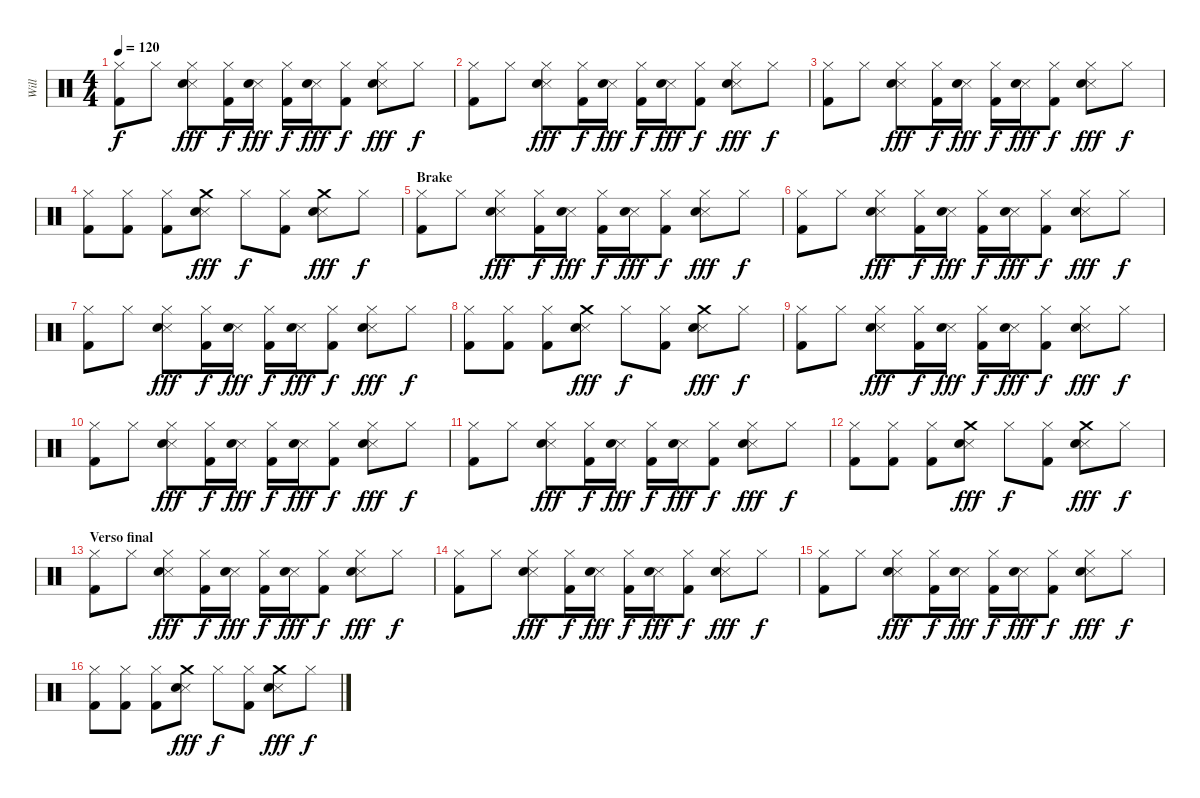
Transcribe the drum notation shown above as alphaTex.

\track ("Will " "Will ") {instrument percussion}
\staff {score}
\articulation defaults
\ts (4 4)
\tempo 120
\clef neutral
\ks c
("Hi-Hat (closed)" "Kick (hit) 2").8{dy f} "Hi-Hat (closed)".8 ("Hi-Hat (closed)" "Snare (side stick) 3" "Electric Snare (hit)").8{dy fff} ("Hi-Hat (closed)" "Kick (hit) 2").16{dy f} ("Snare (side stick) 3" "Electric Snare (hit)").16{dy fff} ("Hi-Hat (closed)" "Kick (hit) 2").16{dy f} ("Snare (side stick) 3" "Electric Snare (hit)").16{dy fff} ("Hi-Hat (closed)" "Kick (hit) 2").8{dy f} ("Hi-Hat (closed)" "Snare (side stick) 3" "Electric Snare (hit)").8{dy fff} "Hi-Hat (closed)".8{dy f} |
("Hi-Hat (closed)" "Kick (hit) 2").8 "Hi-Hat (closed)".8 ("Hi-Hat (closed)" "Snare (side stick) 3" "Electric Snare (hit)").8{dy fff} ("Hi-Hat (closed)" "Kick (hit) 2").16{dy f} ("Snare (side stick) 3" "Electric Snare (hit)").16{dy fff} ("Hi-Hat (closed)" "Kick (hit) 2").16{dy f} ("Snare (side stick) 3" "Electric Snare (hit)").16{dy fff} ("Hi-Hat (closed)" "Kick (hit) 2").8{dy f} ("Hi-Hat (closed)" "Snare (side stick) 3" "Electric Snare (hit)").8{dy fff} "Hi-Hat (closed)".8{dy f} |
("Hi-Hat (closed)" "Kick (hit) 2").8 "Hi-Hat (closed)".8 ("Hi-Hat (closed)" "Snare (side stick) 3" "Electric Snare (hit)").8{dy fff} ("Hi-Hat (closed)" "Kick (hit) 2").16{dy f} ("Snare (side stick) 3" "Electric Snare (hit)").16{dy fff} ("Hi-Hat (closed)" "Kick (hit) 2").16{dy f} ("Snare (side stick) 3" "Electric Snare (hit)").16{dy fff} ("Hi-Hat (closed)" "Kick (hit) 2").8{dy f} ("Hi-Hat (closed)" "Snare (side stick) 3" "Electric Snare (hit)").8{dy fff} "Hi-Hat (closed)".8{dy f} |
("Hi-Hat (closed)" "Kick (hit) 2").8 ("Hi-Hat (closed)" "Kick (hit) 2").8 ("Hi-Hat (closed)" "Kick (hit) 2").8 ("Crash medium (hit)" "Snare (side stick) 3" "Electric Snare (hit)").8{dy fff} "Hi-Hat (closed)".8{dy f} ("Hi-Hat (closed)" "Kick (hit) 2").8 ("Crash medium (hit)" "Snare (side stick) 3" "Electric Snare (hit)").8{dy fff} "Hi-Hat (closed)".8{dy f} |
\section ("" "Brake")
("Hi-Hat (closed)" "Kick (hit) 2").8 "Hi-Hat (closed)".8 ("Hi-Hat (closed)" "Snare (side stick) 3" "Electric Snare (hit)").8{dy fff} ("Hi-Hat (closed)" "Kick (hit) 2").16{dy f} ("Snare (side stick) 3" "Electric Snare (hit)").16{dy fff} ("Hi-Hat (closed)" "Kick (hit) 2").16{dy f} ("Snare (side stick) 3" "Electric Snare (hit)").16{dy fff} ("Hi-Hat (closed)" "Kick (hit) 2").8{dy f} ("Hi-Hat (closed)" "Snare (side stick) 3" "Electric Snare (hit)").8{dy fff} "Hi-Hat (closed)".8{dy f} |
("Hi-Hat (closed)" "Kick (hit) 2").8 "Hi-Hat (closed)".8 ("Hi-Hat (closed)" "Snare (side stick) 3" "Electric Snare (hit)").8{dy fff} ("Hi-Hat (closed)" "Kick (hit) 2").16{dy f} ("Snare (side stick) 3" "Electric Snare (hit)").16{dy fff} ("Hi-Hat (closed)" "Kick (hit) 2").16{dy f} ("Snare (side stick) 3" "Electric Snare (hit)").16{dy fff} ("Hi-Hat (closed)" "Kick (hit) 2").8{dy f} ("Hi-Hat (closed)" "Snare (side stick) 3" "Electric Snare (hit)").8{dy fff} "Hi-Hat (closed)".8{dy f} |
("Hi-Hat (closed)" "Kick (hit) 2").8 "Hi-Hat (closed)".8 ("Hi-Hat (closed)" "Snare (side stick) 3" "Electric Snare (hit)").8{dy fff} ("Hi-Hat (closed)" "Kick (hit) 2").16{dy f} ("Snare (side stick) 3" "Electric Snare (hit)").16{dy fff} ("Hi-Hat (closed)" "Kick (hit) 2").16{dy f} ("Snare (side stick) 3" "Electric Snare (hit)").16{dy fff} ("Hi-Hat (closed)" "Kick (hit) 2").8{dy f} ("Hi-Hat (closed)" "Snare (side stick) 3" "Electric Snare (hit)").8{dy fff} "Hi-Hat (closed)".8{dy f} |
("Hi-Hat (closed)" "Kick (hit) 2").8 ("Hi-Hat (closed)" "Kick (hit) 2").8 ("Hi-Hat (closed)" "Kick (hit) 2").8 ("Crash medium (hit)" "Snare (side stick) 3" "Electric Snare (hit)").8{dy fff} "Hi-Hat (closed)".8{dy f} ("Hi-Hat (closed)" "Kick (hit) 2").8 ("Crash medium (hit)" "Snare (side stick) 3" "Electric Snare (hit)").8{dy fff} "Hi-Hat (closed)".8{dy f} |
("Hi-Hat (closed)" "Kick (hit) 2").8 "Hi-Hat (closed)".8 ("Hi-Hat (closed)" "Snare (side stick) 3" "Electric Snare (hit)").8{dy fff} ("Hi-Hat (closed)" "Kick (hit) 2").16{dy f} ("Snare (side stick) 3" "Electric Snare (hit)").16{dy fff} ("Hi-Hat (closed)" "Kick (hit) 2").16{dy f} ("Snare (side stick) 3" "Electric Snare (hit)").16{dy fff} ("Hi-Hat (closed)" "Kick (hit) 2").8{dy f} ("Hi-Hat (closed)" "Snare (side stick) 3" "Electric Snare (hit)").8{dy fff} "Hi-Hat (closed)".8{dy f} |
("Hi-Hat (closed)" "Kick (hit) 2").8 "Hi-Hat (closed)".8 ("Hi-Hat (closed)" "Snare (side stick) 3" "Electric Snare (hit)").8{dy fff} ("Hi-Hat (closed)" "Kick (hit) 2").16{dy f} ("Snare (side stick) 3" "Electric Snare (hit)").16{dy fff} ("Hi-Hat (closed)" "Kick (hit) 2").16{dy f} ("Snare (side stick) 3" "Electric Snare (hit)").16{dy fff} ("Hi-Hat (closed)" "Kick (hit) 2").8{dy f} ("Hi-Hat (closed)" "Snare (side stick) 3" "Electric Snare (hit)").8{dy fff} "Hi-Hat (closed)".8{dy f} |
("Hi-Hat (closed)" "Kick (hit) 2").8 "Hi-Hat (closed)".8 ("Hi-Hat (closed)" "Snare (side stick) 3" "Electric Snare (hit)").8{dy fff} ("Hi-Hat (closed)" "Kick (hit) 2").16{dy f} ("Snare (side stick) 3" "Electric Snare (hit)").16{dy fff} ("Hi-Hat (closed)" "Kick (hit) 2").16{dy f} ("Snare (side stick) 3" "Electric Snare (hit)").16{dy fff} ("Hi-Hat (closed)" "Kick (hit) 2").8{dy f} ("Hi-Hat (closed)" "Snare (side stick) 3" "Electric Snare (hit)").8{dy fff} "Hi-Hat (closed)".8{dy f} |
("Hi-Hat (closed)" "Kick (hit) 2").8 ("Hi-Hat (closed)" "Kick (hit) 2").8 ("Hi-Hat (closed)" "Kick (hit) 2").8 ("Crash medium (hit)" "Snare (side stick) 3" "Electric Snare (hit)").8{dy fff} "Hi-Hat (closed)".8{dy f} ("Hi-Hat (closed)" "Kick (hit) 2").8 ("Crash medium (hit)" "Snare (side stick) 3" "Electric Snare (hit)").8{dy fff} "Hi-Hat (closed)".8{dy f} |
\section ("" "Verso final")
("Hi-Hat (closed)" "Kick (hit) 2").8 "Hi-Hat (closed)".8 ("Hi-Hat (closed)" "Snare (side stick) 3" "Electric Snare (hit)").8{dy fff} ("Hi-Hat (closed)" "Kick (hit) 2").16{dy f} ("Snare (side stick) 3" "Electric Snare (hit)").16{dy fff} ("Hi-Hat (closed)" "Kick (hit) 2").16{dy f} ("Snare (side stick) 3" "Electric Snare (hit)").16{dy fff} ("Hi-Hat (closed)" "Kick (hit) 2").8{dy f} ("Hi-Hat (closed)" "Snare (side stick) 3" "Electric Snare (hit)").8{dy fff} "Hi-Hat (closed)".8{dy f} |
("Hi-Hat (closed)" "Kick (hit) 2").8 "Hi-Hat (closed)".8 ("Hi-Hat (closed)" "Snare (side stick) 3" "Electric Snare (hit)").8{dy fff} ("Hi-Hat (closed)" "Kick (hit) 2").16{dy f} ("Snare (side stick) 3" "Electric Snare (hit)").16{dy fff} ("Hi-Hat (closed)" "Kick (hit) 2").16{dy f} ("Snare (side stick) 3" "Electric Snare (hit)").16{dy fff} ("Hi-Hat (closed)" "Kick (hit) 2").8{dy f} ("Hi-Hat (closed)" "Snare (side stick) 3" "Electric Snare (hit)").8{dy fff} "Hi-Hat (closed)".8{dy f} |
("Hi-Hat (closed)" "Kick (hit) 2").8 "Hi-Hat (closed)".8 ("Hi-Hat (closed)" "Snare (side stick) 3" "Electric Snare (hit)").8{dy fff} ("Hi-Hat (closed)" "Kick (hit) 2").16{dy f} ("Snare (side stick) 3" "Electric Snare (hit)").16{dy fff} ("Hi-Hat (closed)" "Kick (hit) 2").16{dy f} ("Snare (side stick) 3" "Electric Snare (hit)").16{dy fff} ("Hi-Hat (closed)" "Kick (hit) 2").8{dy f} ("Hi-Hat (closed)" "Snare (side stick) 3" "Electric Snare (hit)").8{dy fff} "Hi-Hat (closed)".8{dy f} |
("Hi-Hat (closed)" "Kick (hit) 2").8 ("Hi-Hat (closed)" "Kick (hit) 2").8 ("Hi-Hat (closed)" "Kick (hit) 2").8 ("Crash medium (hit)" "Snare (side stick) 3" "Electric Snare (hit)").8{dy fff} "Hi-Hat (closed)".8{dy f} ("Hi-Hat (closed)" "Kick (hit) 2").8 ("Crash medium (hit)" "Snare (side stick) 3" "Electric Snare (hit)").8{dy fff} "Hi-Hat (closed)".8{dy f}
